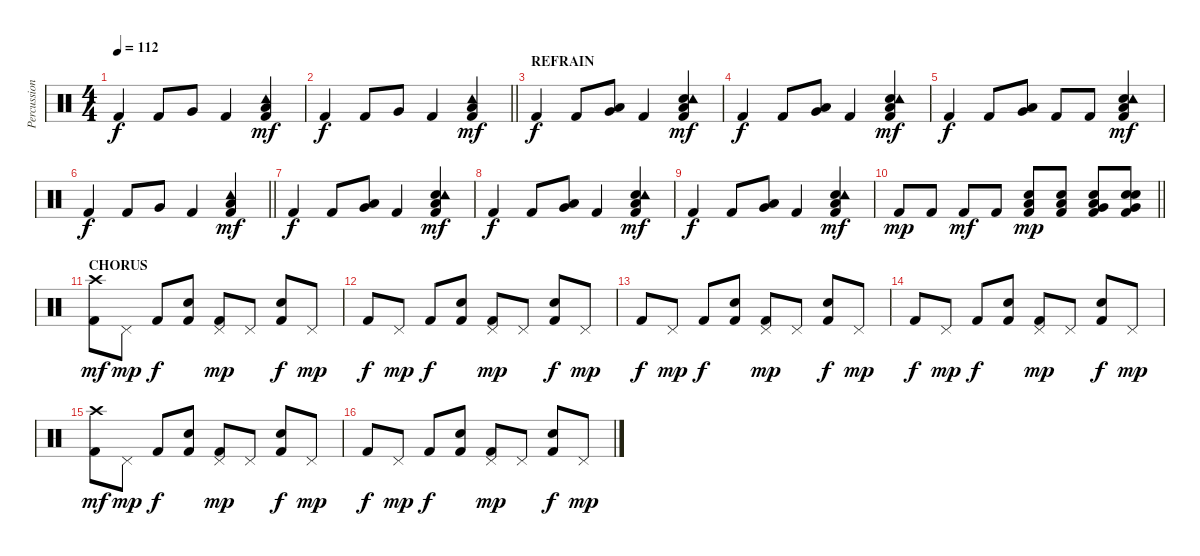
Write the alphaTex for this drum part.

\track ("Percussion" "Percussion") {instrument percussion}
\staff {score}
\articulation defaults
\ts (4 4)
\tempo 112
\clef neutral
\ks c "Kick (hit) 2".4{dy f} "Kick (hit) 2".8 "Very Low Tom (hit)".8 "Kick (hit) 2".4
("Kick (hit) 2" "Low Floor Tom (hit)" "Tambourine (hit)").4{dy mf} |
\barLineRight lightlight "Kick (hit) 2".4{dy f} "Kick (hit) 2".8 "Very Low Tom (hit)".8 "Kick (hit) 2".4
("Kick (hit) 2" "Low Floor Tom (hit)" "Tambourine (hit)").4{dy mf} |
\section ("" "REFRAIN")
"Kick (hit) 2".4{dy f} "Kick (hit) 2".8 ("Low Floor Tom (hit)" "Very Low Tom (hit)").8 "Kick (hit) 2".4 ("Kick (hit) 2" "Low Floor Tom (hit)" "Snare (hit) 2" "Tambourine (hit)").4{dy mf} |
"Kick (hit) 2".4{dy f} "Kick (hit) 2".8 ("Low Floor Tom (hit)" "Very Low Tom (hit)").8 "Kick (hit) 2".4 ("Kick (hit) 2" "Low Floor Tom (hit)" "Snare (hit) 2" "Tambourine (hit)").4{dy mf} |
"Kick (hit) 2".4{dy f} "Kick (hit) 2".8 ("Low Floor Tom (hit)" "Very Low Tom (hit)").8 "Kick (hit) 2".8 "Kick (hit) 2".8 ("Kick (hit) 2" "Low Floor Tom (hit)" "Snare (hit) 2" "Tambourine (hit)").4{dy mf} |
\barLineRight lightlight "Kick (hit) 2".4{dy f} "Kick (hit) 2".8 "Very Low Tom (hit)".8 "Kick (hit) 2".4
("Kick (hit) 2" "Low Floor Tom (hit)" "Tambourine (hit)").4{dy mf} |
"Kick (hit) 2".4{dy f} "Kick (hit) 2".8 ("Low Floor Tom (hit)" "Very Low Tom (hit)").8 "Kick (hit) 2".4 ("Kick (hit) 2" "Low Floor Tom (hit)" "Snare (hit) 2" "Tambourine (hit)").4{dy mf} |
"Kick (hit) 2".4{dy f} "Kick (hit) 2".8 ("Low Floor Tom (hit)" "Very Low Tom (hit)").8 "Kick (hit) 2".4 ("Kick (hit) 2" "Low Floor Tom (hit)" "Snare (hit) 2" "Tambourine (hit)").4{dy mf} |
"Kick (hit) 2".4{dy f} "Kick (hit) 2".8 ("Low Floor Tom (hit)" "Very Low Tom (hit)").8 "Kick (hit) 2".4 ("Kick (hit) 2" "Low Floor Tom (hit)" "Snare (hit) 2" "Tambourine (hit)").4{dy mf} |
\barLineRight lightlight "Kick (hit) 2".8{dy mp} "Kick (hit) 2".8 "Kick (hit) 2".8{dy mf} "Kick (hit) 2".8
("Kick (hit) 2" "Low Floor Tom (hit)" "Electric Snare (hit)").8{dy mp} ("Kick (hit) 2" "Low Floor Tom (hit)" "Electric Snare (hit)").8 ("Kick (hit) 2" "Low Floor Tom (hit)" "Very Low Tom (hit)" "Electric Snare (hit)").8 ("Kick (hit) 2" "Snare (hit)" "Very Low Tom (hit)" "Electric Snare (hit)").8 |
\section ("" "CHORUS")
("Kick (hit) 2" "Crash high (hit)").8{dy mf} "Pedal Hi-Hat (hit)".8{dy mp} "Kick (hit) 2".8{dy f} ("Kick (hit) 2" "Snare (hit) 2").8 ("Kick (hit) 2" "Pedal Hi-Hat (hit)").8{dy mp} "Pedal Hi-Hat (hit)".8 ("Kick (hit) 2" "Snare (hit) 2").8{dy f} "Pedal Hi-Hat (hit)".8{dy mp} |
"Kick (hit) 2".8{dy f} "Pedal Hi-Hat (hit)".8{dy mp} "Kick (hit) 2".8{dy f} ("Kick (hit) 2" "Snare (hit) 2").8 ("Kick (hit) 2" "Pedal Hi-Hat (hit)").8{dy mp} "Pedal Hi-Hat (hit)".8 ("Kick (hit) 2" "Snare (hit) 2").8{dy f} "Pedal Hi-Hat (hit)".8{dy mp} |
"Kick (hit) 2".8{dy f} "Pedal Hi-Hat (hit)".8{dy mp} "Kick (hit) 2".8{dy f} ("Kick (hit) 2" "Snare (hit) 2").8 ("Kick (hit) 2" "Pedal Hi-Hat (hit)").8{dy mp} "Pedal Hi-Hat (hit)".8 ("Kick (hit) 2" "Snare (hit) 2").8{dy f} "Pedal Hi-Hat (hit)".8{dy mp} |
"Kick (hit) 2".8{dy f} "Pedal Hi-Hat (hit)".8{dy mp} "Kick (hit) 2".8{dy f} ("Kick (hit) 2" "Snare (hit) 2").8 ("Kick (hit) 2" "Pedal Hi-Hat (hit)").8{dy mp} "Pedal Hi-Hat (hit)".8 ("Kick (hit) 2" "Snare (hit) 2").8{dy f} "Pedal Hi-Hat (hit)".8{dy mp} |
("Kick (hit) 2" "Crash high (hit)").8{dy mf} "Pedal Hi-Hat (hit)".8{dy mp} "Kick (hit) 2".8{dy f} ("Kick (hit) 2" "Snare (hit) 2").8 ("Kick (hit) 2" "Pedal Hi-Hat (hit)").8{dy mp} "Pedal Hi-Hat (hit)".8 ("Kick (hit) 2" "Snare (hit) 2").8{dy f} "Pedal Hi-Hat (hit)".8{dy mp} |
"Kick (hit) 2".8{dy f} "Pedal Hi-Hat (hit)".8{dy mp} "Kick (hit) 2".8{dy f} ("Kick (hit) 2" "Snare (hit) 2").8 ("Kick (hit) 2" "Pedal Hi-Hat (hit)").8{dy mp} "Pedal Hi-Hat (hit)".8 ("Kick (hit) 2" "Snare (hit) 2").8{dy f} "Pedal Hi-Hat (hit)".8{dy mp}
